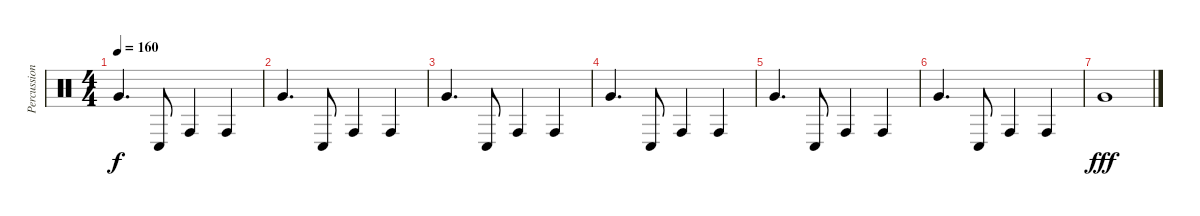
\track ("Percussion 1" "Percussion") {instrument percussion}
\staff {score}
\articulation defaults
\ts (4 4)
\tempo 160
\clef neutral
\ks c "Very Low Tom (hit)".4{d dy f} "Conga low (hit)".8 "Conga high (hit)".4 "Conga high (hit)".4
|
"Very Low Tom (hit)".4{d} "Conga low (hit)".8 "Conga high (hit)".4 "Conga high (hit)".4 |
"Very Low Tom (hit)".4{d} "Conga low (hit)".8 "Conga high (hit)".4 "Conga high (hit)".4 |
"Very Low Tom (hit)".4{d} "Conga low (hit)".8 "Conga high (hit)".4 "Conga high (hit)".4 |
"Very Low Tom (hit)".4{d} "Conga low (hit)".8 "Conga high (hit)".4 "Conga high (hit)".4 |
"Very Low Tom (hit)".4{d} "Conga low (hit)".8 "Conga high (hit)".4 "Conga high (hit)".4 |
"Very Low Tom (hit)".1{dy fff}
